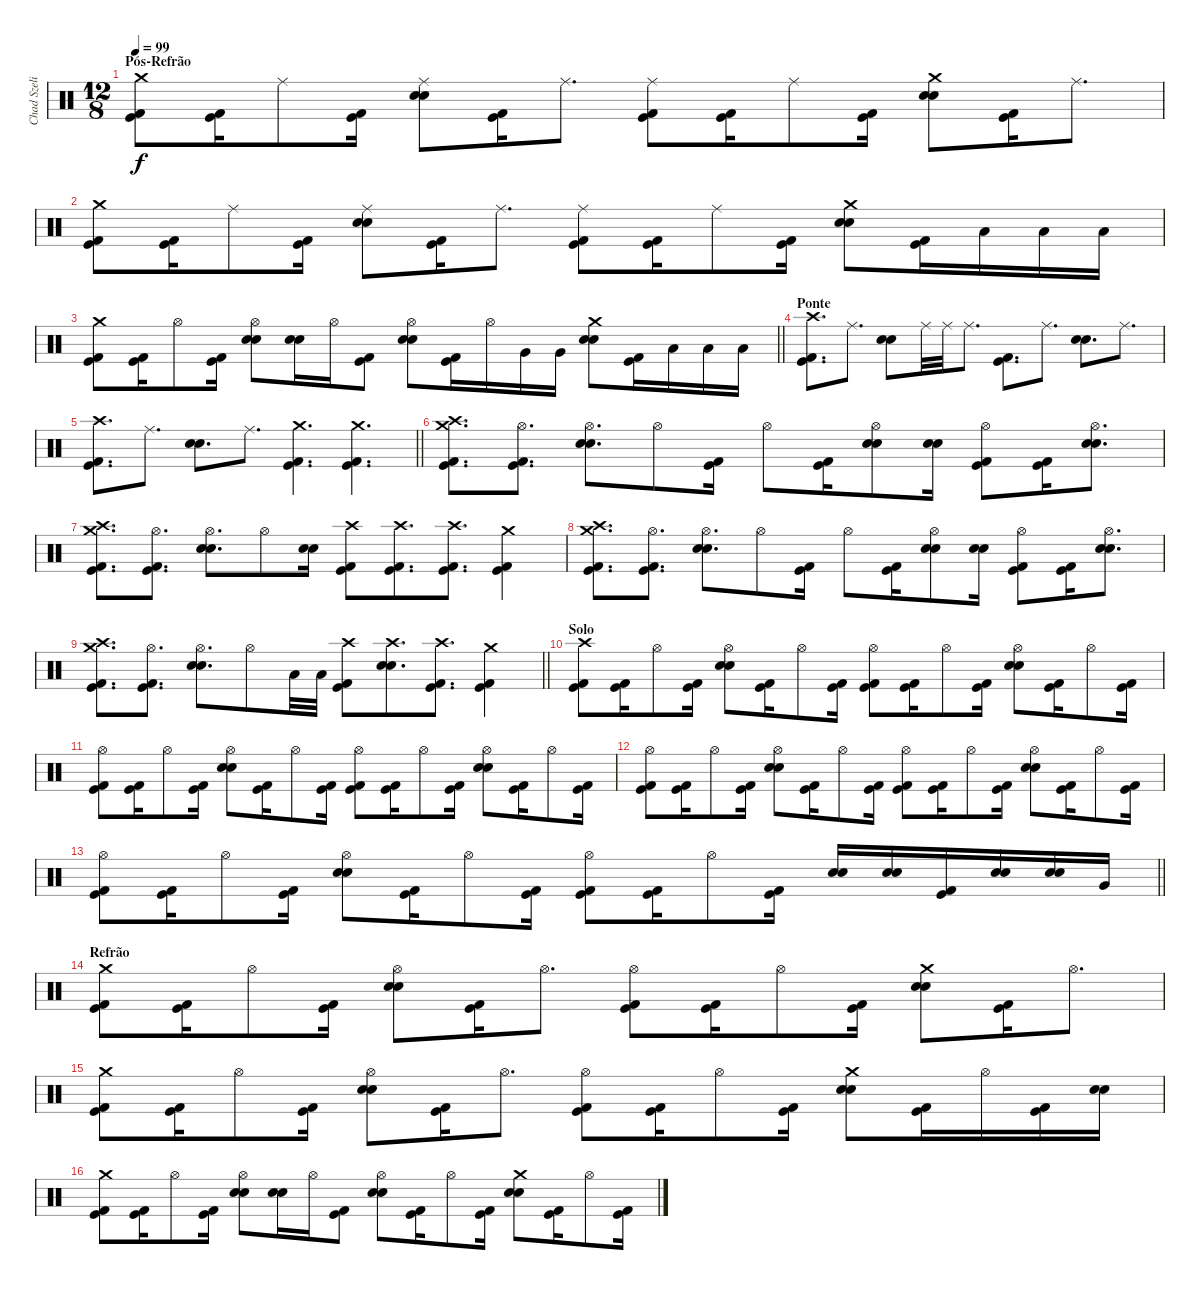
\track ("Chad Szeliga" "Chad Szeli") {instrument percussion}
\staff {score}
\articulation defaults
\ts (12 8)
\section ("" "Pós-Refrão")
\tempo 99
\clef neutral
\ks c
("Crash medium (hit)" "Kick (hit) 2" "Kick (hit)").8{dy f} ("Kick (hit) 2" "Kick (hit)").16 "Ride (middle)".8 ("Kick (hit) 2" "Kick (hit)").16 ("Ride (middle)" "Snare (hit) 2" "Snare (hit) 2").8 ("Kick (hit) 2" "Kick (hit)").16 "Ride (middle)".8{d} ("Ride (middle)" "Kick (hit) 2" "Kick (hit)").8 ("Kick (hit) 2" "Kick (hit)").16 "Ride (middle)".8 ("Kick (hit) 2" "Kick (hit)").16 ("Crash medium (hit)" "Snare (hit) 2" "Snare (hit) 2").8 ("Kick (hit) 2" "Kick (hit)").16 "Ride (middle)".8{d} |
("Crash medium (hit)" "Kick (hit) 2" "Kick (hit)").8 ("Kick (hit) 2" "Kick (hit)").16 "Ride (middle)".8 ("Kick (hit) 2" "Kick (hit)").16 ("Ride (middle)" "Snare (hit) 2" "Snare (hit) 2").8 ("Kick (hit) 2" "Kick (hit)").16 "Ride (middle)".8{d} ("Ride (middle)" "Kick (hit) 2" "Kick (hit)").8 ("Kick (hit) 2" "Kick (hit)").16 "Ride (middle)".8 ("Kick (hit) 2" "Kick (hit)").16 ("Crash medium (hit)" "Snare (hit) 2" "Snare (hit) 2").8 ("Kick (hit) 2" "Kick (hit)").16 "Low Tom (hit)".16 "Low Tom (hit)".16 "Low Tom (hit)".16 |
\barLineRight lightlight
("Crash medium (hit)" "Kick (hit) 2" "Kick (hit)").8 ("Kick (hit) 2" "Kick (hit)").16 "Hi-Hat (open)".8 ("Kick (hit) 2" "Kick (hit)").16 ("Snare (hit) 2" "Snare (hit) 2" "Hi-Hat (open)").8 ("Snare (hit) 2" "Snare (hit) 2").16 "Hi-Hat (open)".16 ("Kick (hit) 2" "Kick (hit)").8 ("Snare (hit) 2" "Snare (hit) 2" "Hi-Hat (open)").8 ("Kick (hit) 2" "Kick (hit)").16 "Hi-Hat (open)".16 "Very Low Tom (hit)".16 "Very Low Tom (hit)".16 ("Crash medium (hit)" "Snare (hit) 2" "Snare (hit) 2").8 ("Kick (hit) 2" "Kick (hit)").16 "Low Tom (hit)".16 "Low Tom (hit)".16 "Low Tom (hit)".16 |
\section ("" "Ponte")
("Crash high (hit)" "Kick (hit) 2" "Kick (hit)").8{d} "Ride (middle)".8{d} ("Snare (hit) 2" "Snare (hit) 2").8 "Ride (middle)".32 "Ride (middle)".32 "Ride (middle)".8{d} ("Kick (hit) 2" "Kick (hit)").8{d} "Ride (middle)".8{d} ("Snare (hit) 2" "Snare (hit) 2").8{d} "Ride (middle)".8{d} |
\barLineRight lightlight
("Crash high (hit)" "Kick (hit) 2" "Kick (hit)").8{d} "Ride (middle)".8{d} ("Snare (hit) 2" "Snare (hit) 2").8{d} "Ride (middle)".8{d} ("Crash medium (hit)" "Kick (hit) 2" "Kick (hit)").4{d} ("Crash medium (hit)" "Kick (hit) 2" "Kick (hit)").4{d} |
("Crash high (hit)" "Kick (hit) 2" "Kick (hit)" "Crash medium (hit)").8{d} ("Kick (hit) 2" "Kick (hit)" "Hi-Hat (open)").8{d} ("Snare (hit) 2" "Snare (hit) 2" "Hi-Hat (open)").8{d} "Hi-Hat (open)".8 ("Kick (hit) 2" "Kick (hit)").16 "Hi-Hat (open)".8 ("Kick (hit) 2" "Kick (hit)").16 ("Snare (hit) 2" "Snare (hit) 2" "Hi-Hat (open)").8 ("Snare (hit) 2" "Snare (hit) 2").16 ("Kick (hit) 2" "Kick (hit)" "Hi-Hat (open)").8 ("Kick (hit) 2" "Kick (hit)").16 ("Snare (hit) 2" "Snare (hit) 2" "Hi-Hat (open)").8{d} |
("Crash high (hit)" "Kick (hit) 2" "Kick (hit)" "Crash medium (hit)").8{d} ("Kick (hit) 2" "Kick (hit)" "Hi-Hat (open)").8{d} ("Snare (hit) 2" "Snare (hit) 2" "Hi-Hat (open)").8{d} "Hi-Hat (open)".8 ("Snare (hit) 2" "Snare (hit) 2").16 ("Crash high (hit)" "Kick (hit) 2" "Kick (hit)").8 ("Crash high (hit)" "Kick (hit) 2" "Kick (hit)").8{d} ("Crash high (hit)" "Kick (hit) 2" "Kick (hit)").8{d} ("Crash medium (hit)" "Kick (hit) 2" "Kick (hit)").4 |
("Crash high (hit)" "Kick (hit) 2" "Kick (hit)" "Crash medium (hit)").8{d} ("Kick (hit) 2" "Kick (hit)" "Hi-Hat (open)").8{d} ("Snare (hit) 2" "Snare (hit) 2" "Hi-Hat (open)").8{d} "Hi-Hat (open)".8 ("Kick (hit) 2" "Kick (hit)").16 "Hi-Hat (open)".8 ("Kick (hit) 2" "Kick (hit)").16 ("Snare (hit) 2" "Snare (hit) 2" "Hi-Hat (open)").8 ("Snare (hit) 2" "Snare (hit) 2").16 ("Kick (hit) 2" "Kick (hit)" "Hi-Hat (open)").8 ("Kick (hit) 2" "Kick (hit)").16 ("Snare (hit) 2" "Snare (hit) 2" "Hi-Hat (open)").8{d} |
\barLineRight lightlight
("Crash high (hit)" "Kick (hit) 2" "Kick (hit)" "Crash medium (hit)").8{d} ("Kick (hit) 2" "Kick (hit)" "Hi-Hat (open)").8{d} ("Snare (hit) 2" "Snare (hit) 2" "Hi-Hat (open)").8{d} "Hi-Hat (open)".8 "Low Tom (hit)".32 "Low Tom (hit)".32 ("Crash high (hit)" "Kick (hit) 2" "Kick (hit)").8 ("Crash high (hit)" "Snare (hit) 2" "Snare (hit) 2").8{d} ("Crash high (hit)" "Kick (hit) 2" "Kick (hit)").8{d} ("Crash medium (hit)" "Kick (hit) 2" "Kick (hit)").4 |
\section ("" "Solo")
("Crash high (hit)" "Kick (hit) 2" "Kick (hit)").8 ("Kick (hit) 2" "Kick (hit)").16 "Hi-Hat (open)".8 ("Kick (hit) 2" "Kick (hit)").16 ("Snare (hit) 2" "Snare (hit) 2" "Hi-Hat (open)").8 ("Kick (hit) 2" "Kick (hit)").16 "Hi-Hat (open)".8 ("Kick (hit) 2" "Kick (hit)").16 ("Kick (hit) 2" "Kick (hit)" "Hi-Hat (open)").8 ("Kick (hit) 2" "Kick (hit)").16 "Hi-Hat (open)".8 ("Kick (hit) 2" "Kick (hit)").16 ("Snare (hit) 2" "Snare (hit) 2" "Hi-Hat (open)").8 ("Kick (hit) 2" "Kick (hit)").16 "Hi-Hat (open)".8 ("Kick (hit) 2" "Kick (hit)").16 |
("Kick (hit) 2" "Kick (hit)" "Hi-Hat (open)").8 ("Kick (hit) 2" "Kick (hit)").16 "Hi-Hat (open)".8 ("Kick (hit) 2" "Kick (hit)").16 ("Snare (hit) 2" "Snare (hit) 2" "Hi-Hat (open)").8 ("Kick (hit) 2" "Kick (hit)").16 "Hi-Hat (open)".8 ("Kick (hit) 2" "Kick (hit)").16 ("Kick (hit) 2" "Kick (hit)" "Hi-Hat (open)").8 ("Kick (hit) 2" "Kick (hit)").16 "Hi-Hat (open)".8 ("Kick (hit) 2" "Kick (hit)").16 ("Snare (hit) 2" "Snare (hit) 2" "Hi-Hat (open)").8 ("Kick (hit) 2" "Kick (hit)").16 "Hi-Hat (open)".8 ("Kick (hit) 2" "Kick (hit)").16 |
("Kick (hit) 2" "Kick (hit)" "Hi-Hat (open)").8 ("Kick (hit) 2" "Kick (hit)").16 "Hi-Hat (open)".8 ("Kick (hit) 2" "Kick (hit)").16 ("Snare (hit) 2" "Snare (hit) 2" "Hi-Hat (open)").8 ("Kick (hit) 2" "Kick (hit)").16 "Hi-Hat (open)".8 ("Kick (hit) 2" "Kick (hit)").16 ("Kick (hit) 2" "Kick (hit)" "Hi-Hat (open)").8 ("Kick (hit) 2" "Kick (hit)").16 "Hi-Hat (open)".8 ("Kick (hit) 2" "Kick (hit)").16 ("Snare (hit) 2" "Snare (hit) 2" "Hi-Hat (open)").8 ("Kick (hit) 2" "Kick (hit)").16 "Hi-Hat (open)".8 ("Kick (hit) 2" "Kick (hit)").16 |
\barLineRight lightlight
("Kick (hit) 2" "Kick (hit)" "Hi-Hat (open)").8 ("Kick (hit) 2" "Kick (hit)").16 "Hi-Hat (open)".8 ("Kick (hit) 2" "Kick (hit)").16 ("Snare (hit) 2" "Snare (hit) 2" "Hi-Hat (open)").8 ("Kick (hit) 2" "Kick (hit)").16 "Hi-Hat (open)".8 ("Kick (hit) 2" "Kick (hit)").16 ("Kick (hit) 2" "Kick (hit)" "Hi-Hat (open)").8 ("Kick (hit) 2" "Kick (hit)").16 "Hi-Hat (open)".8 ("Kick (hit) 2" "Kick (hit)").16 ("Snare (hit) 2" "Snare (hit) 2").16 ("Snare (hit) 2" "Snare (hit) 2").16 ("Kick (hit) 2" "Kick (hit)").16 ("Snare (hit) 2" "Snare (hit) 2").16 ("Snare (hit) 2" "Snare (hit) 2").16 "Very Low Tom (hit)".16 |
\section ("" "Refrão")
("Crash medium (hit)" "Kick (hit) 2" "Kick (hit)").8 ("Kick (hit) 2" "Kick (hit)").16 "Hi-Hat (open)".8 ("Kick (hit) 2" "Kick (hit)").16 ("Snare (hit) 2" "Snare (hit) 2" "Hi-Hat (open)").8 ("Kick (hit) 2" "Kick (hit)").16 "Hi-Hat (open)".8{d} ("Kick (hit) 2" "Kick (hit)" "Hi-Hat (open)").8 ("Kick (hit) 2" "Kick (hit)").16 "Hi-Hat (open)".8 ("Kick (hit) 2" "Kick (hit)").16 ("Crash medium (hit)" "Snare (hit) 2" "Snare (hit) 2").8 ("Kick (hit) 2" "Kick (hit)").16 "Hi-Hat (open)".8{d} |
("Crash medium (hit)" "Kick (hit) 2" "Kick (hit)").8 ("Kick (hit) 2" "Kick (hit)").16 "Hi-Hat (open)".8 ("Kick (hit) 2" "Kick (hit)").16 ("Snare (hit) 2" "Snare (hit) 2" "Hi-Hat (open)").8 ("Kick (hit) 2" "Kick (hit)").16 "Hi-Hat (open)".8{d} ("Kick (hit) 2" "Kick (hit)" "Hi-Hat (open)").8 ("Kick (hit) 2" "Kick (hit)").16 "Hi-Hat (open)".8 ("Kick (hit) 2" "Kick (hit)").16 ("Crash medium (hit)" "Snare (hit) 2" "Snare (hit) 2").8 ("Kick (hit) 2" "Kick (hit)").16 "Hi-Hat (open)".16 ("Kick (hit) 2" "Kick (hit)").16 ("Snare (hit) 2" "Snare (hit) 2").16 |
("Crash medium (hit)" "Kick (hit) 2" "Kick (hit)").8 ("Kick (hit) 2" "Kick (hit)").16 "Hi-Hat (open)".8 ("Kick (hit) 2" "Kick (hit)").16 ("Snare (hit) 2" "Snare (hit) 2" "Hi-Hat (open)").8 ("Snare (hit) 2" "Snare (hit) 2").16 "Hi-Hat (open)".16 ("Kick (hit) 2" "Kick (hit)").8 ("Snare (hit) 2" "Snare (hit) 2" "Hi-Hat (open)").8 ("Kick (hit) 2" "Kick (hit)").16 "Hi-Hat (open)".8 ("Kick (hit) 2" "Kick (hit)").16 ("Crash medium (hit)" "Snare (hit) 2" "Snare (hit) 2").8 ("Kick (hit) 2" "Kick (hit)").16 "Hi-Hat (open)".8 ("Kick (hit) 2" "Kick (hit)").16
